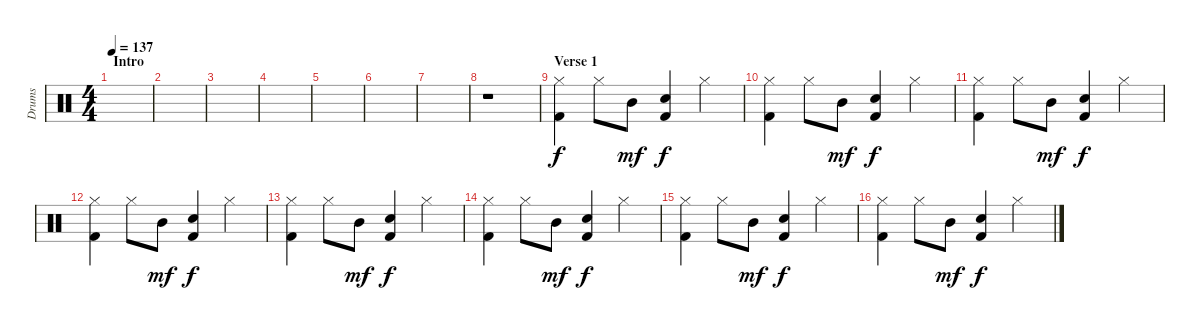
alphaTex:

\track ("Drums" "Drums") {instrument percussion}
\staff {score}
\articulation defaults
\ts (4 4)
\section ("" "Intro")
\tempo 137
\clef neutral
\ks c
|
|
|
|
|
|
|
r.1 |
\section ("" "Verse 1")
("Hi-Hat (closed)" "Kick (hit) 2").4 "Hi-Hat (closed)".8 "Mid Tom (hit)".8{dy mf} ("Electric Snare (hit)" "Kick (hit) 2").4{dy f} "Hi-Hat (closed)".4 |
("Hi-Hat (closed)" "Kick (hit) 2").4 "Hi-Hat (closed)".8 "Mid Tom (hit)".8{dy mf} ("Electric Snare (hit)" "Kick (hit) 2").4{dy f} "Hi-Hat (closed)".4 |
("Hi-Hat (closed)" "Kick (hit) 2").4 "Hi-Hat (closed)".8 "Mid Tom (hit)".8{dy mf} ("Electric Snare (hit)" "Kick (hit) 2").4{dy f} "Hi-Hat (closed)".4 |
("Hi-Hat (closed)" "Kick (hit) 2").4 "Hi-Hat (closed)".8 "Mid Tom (hit)".8{dy mf} ("Electric Snare (hit)" "Kick (hit) 2").4{dy f} "Hi-Hat (closed)".4 |
("Hi-Hat (closed)" "Kick (hit) 2").4 "Hi-Hat (closed)".8 "Mid Tom (hit)".8{dy mf} ("Electric Snare (hit)" "Kick (hit) 2").4{dy f} "Hi-Hat (closed)".4 |
("Hi-Hat (closed)" "Kick (hit) 2").4 "Hi-Hat (closed)".8 "Mid Tom (hit)".8{dy mf} ("Electric Snare (hit)" "Kick (hit) 2").4{dy f} "Hi-Hat (closed)".4 |
("Hi-Hat (closed)" "Kick (hit) 2").4 "Hi-Hat (closed)".8 "Mid Tom (hit)".8{dy mf} ("Electric Snare (hit)" "Kick (hit) 2").4{dy f} "Hi-Hat (closed)".4 |
("Hi-Hat (closed)" "Kick (hit) 2").4 "Hi-Hat (closed)".8 "Mid Tom (hit)".8{dy mf} ("Electric Snare (hit)" "Kick (hit) 2").4{dy f} "Hi-Hat (closed)".4
